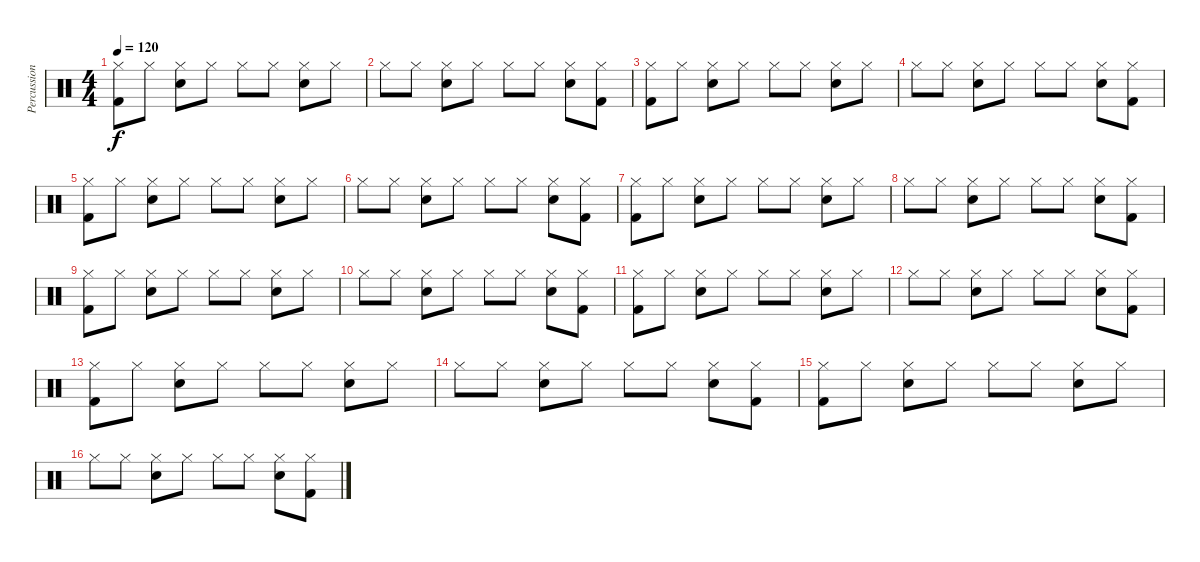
\track ("Percussions" "Percussion") {instrument percussion}
\staff {score}
\articulation defaults
\ts (4 4)
\tempo 120
\clef neutral
\ks c
("Hi-Hat (closed)" "Kick (hit) 2").8{dy f} "Hi-Hat (closed)".8 ("Hi-Hat (closed)" "Electric Snare (hit)").8 "Hi-Hat (closed)".8 "Hi-Hat (closed)".8 "Hi-Hat (closed)".8 ("Hi-Hat (closed)" "Electric Snare (hit)").8 "Hi-Hat (closed)".8 |
"Hi-Hat (closed)".8 "Hi-Hat (closed)".8 ("Hi-Hat (closed)" "Electric Snare (hit)").8 "Hi-Hat (closed)".8 "Hi-Hat (closed)".8 "Hi-Hat (closed)".8 ("Hi-Hat (closed)" "Electric Snare (hit)").8 ("Hi-Hat (closed)" "Kick (hit) 2").8 |
("Hi-Hat (closed)" "Kick (hit) 2").8 "Hi-Hat (closed)".8 ("Hi-Hat (closed)" "Electric Snare (hit)").8 "Hi-Hat (closed)".8 "Hi-Hat (closed)".8 "Hi-Hat (closed)".8 ("Hi-Hat (closed)" "Electric Snare (hit)").8 "Hi-Hat (closed)".8 |
"Hi-Hat (closed)".8 "Hi-Hat (closed)".8 ("Hi-Hat (closed)" "Electric Snare (hit)").8 "Hi-Hat (closed)".8 "Hi-Hat (closed)".8 "Hi-Hat (closed)".8 ("Hi-Hat (closed)" "Electric Snare (hit)").8 ("Hi-Hat (closed)" "Kick (hit) 2").8 |
("Hi-Hat (closed)" "Kick (hit) 2").8 "Hi-Hat (closed)".8 ("Hi-Hat (closed)" "Electric Snare (hit)").8 "Hi-Hat (closed)".8 "Hi-Hat (closed)".8 "Hi-Hat (closed)".8 ("Hi-Hat (closed)" "Electric Snare (hit)").8 "Hi-Hat (closed)".8 |
"Hi-Hat (closed)".8 "Hi-Hat (closed)".8 ("Hi-Hat (closed)" "Electric Snare (hit)").8 "Hi-Hat (closed)".8 "Hi-Hat (closed)".8 "Hi-Hat (closed)".8 ("Hi-Hat (closed)" "Electric Snare (hit)").8 ("Hi-Hat (closed)" "Kick (hit) 2").8 |
("Hi-Hat (closed)" "Kick (hit) 2").8 "Hi-Hat (closed)".8 ("Hi-Hat (closed)" "Electric Snare (hit)").8 "Hi-Hat (closed)".8 "Hi-Hat (closed)".8 "Hi-Hat (closed)".8 ("Hi-Hat (closed)" "Electric Snare (hit)").8 "Hi-Hat (closed)".8 |
"Hi-Hat (closed)".8 "Hi-Hat (closed)".8 ("Hi-Hat (closed)" "Electric Snare (hit)").8 "Hi-Hat (closed)".8 "Hi-Hat (closed)".8 "Hi-Hat (closed)".8 ("Hi-Hat (closed)" "Electric Snare (hit)").8 ("Hi-Hat (closed)" "Kick (hit) 2").8 |
("Hi-Hat (closed)" "Kick (hit) 2").8 "Hi-Hat (closed)".8 ("Hi-Hat (closed)" "Electric Snare (hit)").8 "Hi-Hat (closed)".8 "Hi-Hat (closed)".8 "Hi-Hat (closed)".8 ("Hi-Hat (closed)" "Electric Snare (hit)").8 "Hi-Hat (closed)".8 |
"Hi-Hat (closed)".8 "Hi-Hat (closed)".8 ("Hi-Hat (closed)" "Electric Snare (hit)").8 "Hi-Hat (closed)".8 "Hi-Hat (closed)".8 "Hi-Hat (closed)".8 ("Hi-Hat (closed)" "Electric Snare (hit)").8 ("Hi-Hat (closed)" "Kick (hit) 2").8 |
("Hi-Hat (closed)" "Kick (hit) 2").8 "Hi-Hat (closed)".8 ("Hi-Hat (closed)" "Electric Snare (hit)").8 "Hi-Hat (closed)".8 "Hi-Hat (closed)".8 "Hi-Hat (closed)".8 ("Hi-Hat (closed)" "Electric Snare (hit)").8 "Hi-Hat (closed)".8 |
"Hi-Hat (closed)".8 "Hi-Hat (closed)".8 ("Hi-Hat (closed)" "Electric Snare (hit)").8 "Hi-Hat (closed)".8 "Hi-Hat (closed)".8 "Hi-Hat (closed)".8 ("Hi-Hat (closed)" "Electric Snare (hit)").8 ("Hi-Hat (closed)" "Kick (hit) 2").8 |
("Hi-Hat (closed)" "Kick (hit) 2").8 "Hi-Hat (closed)".8 ("Hi-Hat (closed)" "Electric Snare (hit)").8 "Hi-Hat (closed)".8 "Hi-Hat (closed)".8 "Hi-Hat (closed)".8 ("Hi-Hat (closed)" "Electric Snare (hit)").8 "Hi-Hat (closed)".8 |
"Hi-Hat (closed)".8 "Hi-Hat (closed)".8 ("Hi-Hat (closed)" "Electric Snare (hit)").8 "Hi-Hat (closed)".8 "Hi-Hat (closed)".8 "Hi-Hat (closed)".8 ("Hi-Hat (closed)" "Electric Snare (hit)").8 ("Hi-Hat (closed)" "Kick (hit) 2").8 |
("Hi-Hat (closed)" "Kick (hit) 2").8 "Hi-Hat (closed)".8 ("Hi-Hat (closed)" "Electric Snare (hit)").8 "Hi-Hat (closed)".8 "Hi-Hat (closed)".8 "Hi-Hat (closed)".8 ("Hi-Hat (closed)" "Electric Snare (hit)").8 "Hi-Hat (closed)".8 |
"Hi-Hat (closed)".8 "Hi-Hat (closed)".8 ("Hi-Hat (closed)" "Electric Snare (hit)").8 "Hi-Hat (closed)".8 "Hi-Hat (closed)".8 "Hi-Hat (closed)".8 ("Hi-Hat (closed)" "Electric Snare (hit)").8 ("Hi-Hat (closed)" "Kick (hit) 2").8
